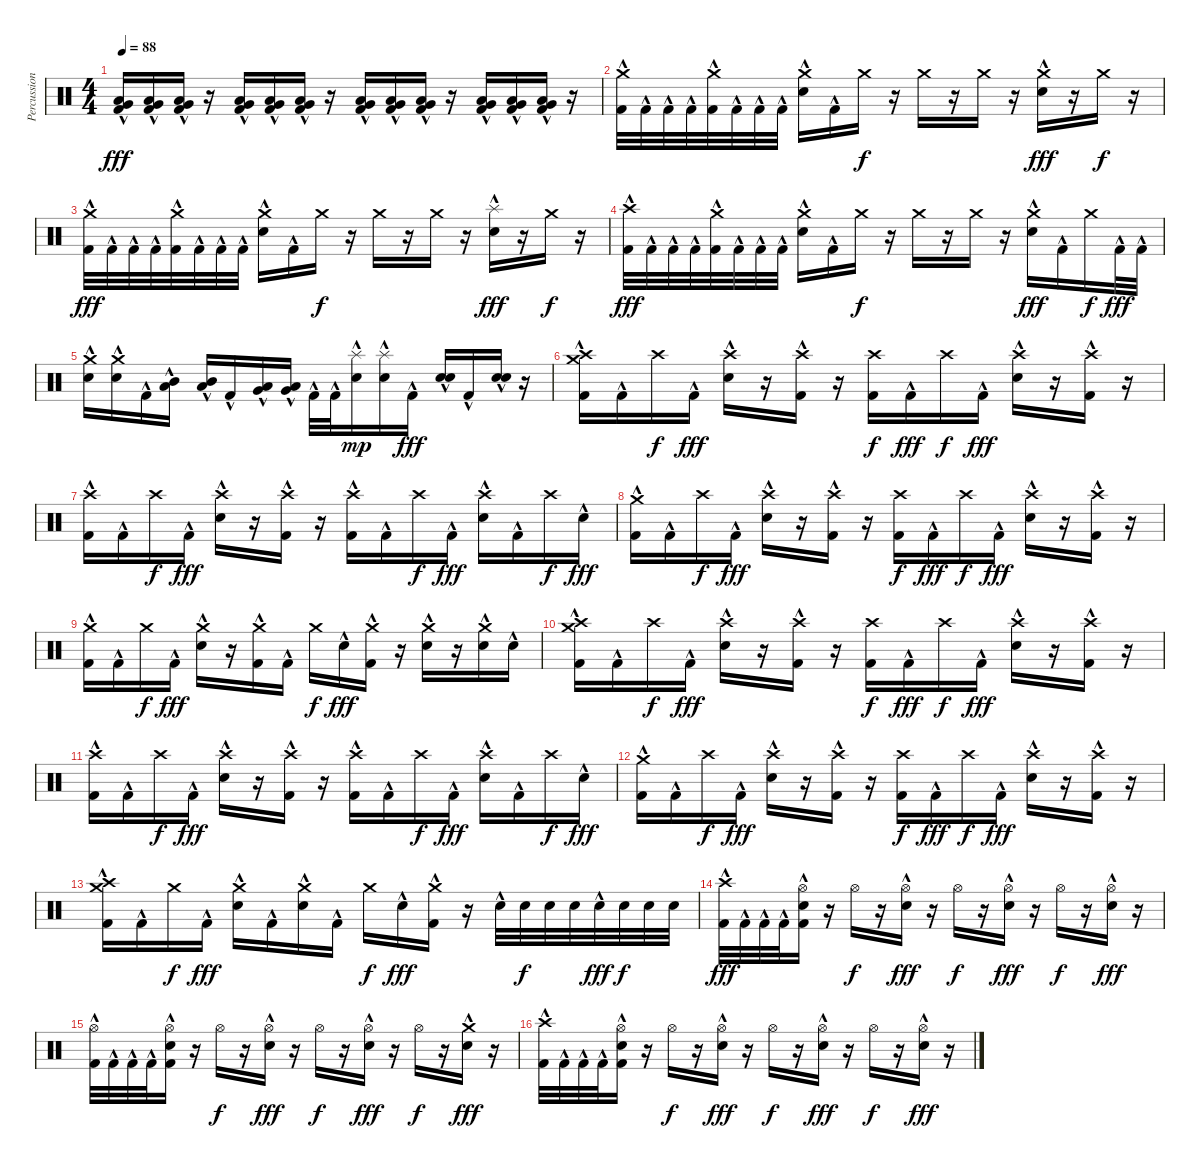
\track ("Percussion" "Percussion") {instrument percussion}
\staff {score}
\articulation defaults
\ts (4 4)
\tempo 88
\clef neutral
\ks c
("Kick (hit) 2"{hac} "Very Low Tom (hit)"{hac} "Low Tom (hit)"{hac}).16{dy fff} ("Kick (hit) 2"{hac} "Very Low Tom (hit)"{hac} "Low Tom (hit)"{hac}).16 ("Kick (hit) 2"{hac} "Very Low Tom (hit)"{hac} "Low Tom (hit)"{hac}).16 r.16 ("Kick (hit) 2"{hac} "Very Low Tom (hit)"{hac} "Low Tom (hit)"{hac}).16 ("Kick (hit) 2"{hac} "Very Low Tom (hit)"{hac} "Low Tom (hit)"{hac}).16 ("Kick (hit) 2"{hac} "Very Low Tom (hit)"{hac} "Low Tom (hit)"{hac}).16 r.16 ("Kick (hit) 2"{hac} "Very Low Tom (hit)"{hac} "Low Tom (hit)"{hac}).16 ("Kick (hit) 2"{hac} "Very Low Tom (hit)"{hac} "Low Tom (hit)"{hac}).16 ("Kick (hit) 2"{hac} "Very Low Tom (hit)"{hac} "Low Tom (hit)"{hac}).16 r.16 ("Kick (hit) 2"{hac} "Very Low Tom (hit)"{hac} "Low Tom (hit)"{hac}).16 ("Kick (hit) 2"{hac} "Very Low Tom (hit)"{hac} "Low Tom (hit)"{hac}).16 ("Kick (hit) 2"{hac} "Very Low Tom (hit)"{hac} "Low Tom (hit)"{hac}).16 r.16 |
("Kick (hit) 2"{hac} "Crash medium (hit)").32 "Kick (hit) 2"{hac}.32 "Kick (hit) 2"{hac}.32 "Kick (hit) 2"{hac}.32 ("Kick (hit) 2"{hac} "Crash medium (hit)").32 "Kick (hit) 2"{hac}.32 "Kick (hit) 2"{hac}.32 "Kick (hit) 2"{hac}.32 ("Electric Snare (hit)"{hac} "Crash medium (hit)").16 "Kick (hit) 2"{hac}.16 "Crash medium (hit)".16{dy f} r.16 "Crash medium (hit)".16 r.16 "Crash medium (hit)".16 r.16 ("Electric Snare (hit)"{hac} "Crash medium (hit)").16{dy fff} r.16 "Crash medium (hit)".16{dy f} r.16 |
("Kick (hit) 2"{hac} "Crash medium (hit)").32{dy fff} "Kick (hit) 2"{hac}.32 "Kick (hit) 2"{hac}.32 "Kick (hit) 2"{hac}.32 ("Kick (hit) 2"{hac} "Crash medium (hit)").32 "Kick (hit) 2"{hac}.32 "Kick (hit) 2"{hac}.32 "Kick (hit) 2"{hac}.32 ("Electric Snare (hit)"{hac} "Crash medium (hit)").16 "Kick (hit) 2"{hac}.16 "Crash medium (hit)".16{dy f} r.16 "Crash medium (hit)".16 r.16 "Crash medium (hit)".16 r.16 ("Electric Snare (hit)"{hac} "Splash (hit)").16{dy fff} r.16 "Crash medium (hit)".16{dy f} r.16 |
("Kick (hit) 2"{hac} "Crash high (hit)").32{dy fff} "Kick (hit) 2"{hac}.32 "Kick (hit) 2"{hac}.32 "Kick (hit) 2"{hac}.32 ("Kick (hit) 2"{hac} "Crash medium (hit)").32 "Kick (hit) 2"{hac}.32 "Kick (hit) 2"{hac}.32 "Kick (hit) 2"{hac}.32 ("Electric Snare (hit)"{hac} "Crash medium (hit)").16 "Kick (hit) 2"{hac}.16 "Crash medium (hit)".16{dy f} r.16 "Crash medium (hit)".16 r.16 "Crash medium (hit)".16 r.16 ("Electric Snare (hit)"{hac} "Crash medium (hit)").16{dy fff} "Kick (hit) 2"{hac}.16 "Crash medium (hit)".16{dy f} "Kick (hit) 2"{hac}.32{dy fff} "Kick (hit) 2"{hac}.32 |
("Electric Snare (hit)"{hac} "Crash medium (hit)").16 ("Electric Snare (hit)"{hac} "Crash medium (hit)").16 "Kick (hit) 2"{hac}.16 ("Mid Tom (hit)"{hac} "Low Tom (hit)"{hac}).16 ("Mid Tom (hit)"{hac} "Low Tom (hit)"{hac}).16 "Kick (hit) 2"{hac}.16 ("Low Tom (hit)"{hac} "Very Low Tom (hit)"{hac}).16 ("Low Tom (hit)"{hac} "Very Low Tom (hit)"{hac}).16 "Kick (hit) 2"{hac}.32 "Kick (hit) 2"{hac}.32 ("Electric Snare (hit)"{hac} "Splash (hit)").16{dy mp} ("Electric Snare (hit)"{hac} "Splash (hit)").16 "Kick (hit) 2"{hac}.16{dy fff} ("Electric Snare (hit)"{hac} "Electric Snare (hit)"{hac}).16{bd 240} "Kick (hit) 2"{hac}.16 ("Electric Snare (hit)"{hac} "Electric Snare (hit)"{hac}).16{bd 240} r.16 |
("Kick (hit) 2"{hac} "Crash medium (hit)" "Crash high (hit)").16 "Kick (hit) 2"{hac}.16 "Crash high (hit)".16{dy f} "Kick (hit) 2"{hac}.16{dy fff} ("Electric Snare (hit)"{hac} "Crash high (hit)").16 r.16 ("Kick (hit) 2"{hac} "Crash high (hit)").16 r.16 ("Kick (hit) 2" "Crash high (hit)").16{dy f} "Kick (hit) 2"{hac}.16{dy fff} "Crash high (hit)".16{dy f} "Kick (hit) 2"{hac}.16{dy fff} ("Electric Snare (hit)"{hac} "Crash high (hit)").16 r.16 ("Kick (hit) 2"{hac} "Crash high (hit)").16 r.16 |
("Kick (hit) 2"{hac} "Crash high (hit)").16 "Kick (hit) 2"{hac}.16 "Crash high (hit)".16{dy f} "Kick (hit) 2"{hac}.16{dy fff} ("Electric Snare (hit)"{hac} "Crash high (hit)").16 r.16 ("Kick (hit) 2"{hac} "Crash high (hit)").16 r.16 ("Kick (hit) 2"{hac} "Crash high (hit)").16 "Kick (hit) 2"{hac}.16 "Crash high (hit)".16{dy f} "Kick (hit) 2"{hac}.16{dy fff} ("Electric Snare (hit)"{hac} "Crash high (hit)").16 "Kick (hit) 2"{hac}.16 "Crash high (hit)".16{dy f} "Electric Snare (hit)"{hac}.16{dy fff} |
("Kick (hit) 2"{hac} "Crash medium (hit)").16 "Kick (hit) 2"{hac}.16 "Crash high (hit)".16{dy f} "Kick (hit) 2"{hac}.16{dy fff} ("Electric Snare (hit)"{hac} "Crash high (hit)").16 r.16 ("Kick (hit) 2"{hac} "Crash high (hit)").16 r.16 ("Kick (hit) 2" "Crash high (hit)").16{dy f} "Kick (hit) 2"{hac}.16{dy fff} "Crash high (hit)".16{dy f} "Kick (hit) 2"{hac}.16{dy fff} ("Electric Snare (hit)"{hac} "Crash high (hit)").16 r.16 ("Kick (hit) 2"{hac} "Crash high (hit)").16 r.16 |
("Kick (hit) 2"{hac} "Crash medium (hit)").16 "Kick (hit) 2"{hac}.16 "Crash medium (hit)".16{dy f} "Kick (hit) 2"{hac}.16{dy fff} ("Electric Snare (hit)"{hac} "Crash medium (hit)").16 r.16 ("Kick (hit) 2"{hac} "Crash medium (hit)").16 "Kick (hit) 2"{hac}.16 "Crash medium (hit)".16{dy f} "Electric Snare (hit)"{hac}.16{dy fff} ("Kick (hit) 2"{hac} "Crash medium (hit)").16 r.16 ("Electric Snare (hit)"{hac} "Crash medium (hit)").16 r.16 ("Electric Snare (hit)"{hac} "Crash medium (hit)").16 "Electric Snare (hit)"{hac}.16 |
("Kick (hit) 2"{hac} "Crash medium (hit)" "Crash high (hit)").16 "Kick (hit) 2"{hac}.16 "Crash high (hit)".16{dy f} "Kick (hit) 2"{hac}.16{dy fff} ("Electric Snare (hit)"{hac} "Crash high (hit)").16 r.16 ("Kick (hit) 2"{hac} "Crash high (hit)").16 r.16 ("Kick (hit) 2" "Crash high (hit)").16{dy f} "Kick (hit) 2"{hac}.16{dy fff} "Crash high (hit)".16{dy f} "Kick (hit) 2"{hac}.16{dy fff} ("Electric Snare (hit)"{hac} "Crash high (hit)").16 r.16 ("Kick (hit) 2"{hac} "Crash high (hit)").16 r.16 |
("Kick (hit) 2"{hac} "Crash high (hit)").16 "Kick (hit) 2"{hac}.16 "Crash high (hit)".16{dy f} "Kick (hit) 2"{hac}.16{dy fff} ("Electric Snare (hit)"{hac} "Crash high (hit)").16 r.16 ("Kick (hit) 2"{hac} "Crash high (hit)").16 r.16 ("Kick (hit) 2"{hac} "Crash high (hit)").16 "Kick (hit) 2"{hac}.16 "Crash high (hit)".16{dy f} "Kick (hit) 2"{hac}.16{dy fff} ("Electric Snare (hit)"{hac} "Crash high (hit)").16 "Kick (hit) 2"{hac}.16 "Crash high (hit)".16{dy f} "Electric Snare (hit)"{hac}.16{dy fff} |
("Kick (hit) 2"{hac} "Crash medium (hit)").16 "Kick (hit) 2"{hac}.16 "Crash high (hit)".16{dy f} "Kick (hit) 2"{hac}.16{dy fff} ("Electric Snare (hit)"{hac} "Crash high (hit)").16 r.16 ("Kick (hit) 2"{hac} "Crash high (hit)").16 r.16 ("Kick (hit) 2" "Crash high (hit)").16{dy f} "Kick (hit) 2"{hac}.16{dy fff} "Crash high (hit)".16{dy f} "Kick (hit) 2"{hac}.16{dy fff} ("Electric Snare (hit)"{hac} "Crash high (hit)").16 r.16 ("Kick (hit) 2"{hac} "Crash high (hit)").16 r.16 |
("Kick (hit) 2"{hac} "Crash high (hit)" "Crash medium (hit)").16 "Kick (hit) 2"{hac}.16 "Crash medium (hit)".16{dy f} "Kick (hit) 2"{hac}.16{dy fff} ("Electric Snare (hit)"{hac} "Crash medium (hit)").16 "Kick (hit) 2"{hac}.16 ("Electric Snare (hit)"{hac} "Crash medium (hit)").16 "Kick (hit) 2"{hac}.16 "Crash medium (hit)".16{dy f} "Electric Snare (hit)"{hac}.16{dy fff} ("Kick (hit) 2"{hac} "Crash medium (hit)").16 r.16 "Electric Snare (hit)"{hac}.32 "Electric Snare (hit)".32{dy f} "Electric Snare (hit)".32 "Electric Snare (hit)".32 "Electric Snare (hit)"{hac}.32{dy fff} "Electric Snare (hit)".32{dy f} "Electric Snare (hit)".32 "Electric Snare (hit)".32 |
("Kick (hit) 2"{hac} "Crash high (hit)").32{dy fff} "Kick (hit) 2"{hac}.32 "Kick (hit) 2"{hac}.32 "Kick (hit) 2"{hac}.32 ("Kick (hit) 2"{hac} "Electric Snare (hit)" "Hi-Hat (open)").16 r.16 "Hi-Hat (open)".16{dy f} r.16 ("Electric Snare (hit)"{hac} "Hi-Hat (open)").16{dy fff} r.16 "Hi-Hat (open)".16{dy f} r.16 ("Electric Snare (hit)"{hac} "Hi-Hat (open)").16{dy fff} r.16 "Hi-Hat (open)".16{dy f} r.16 ("Electric Snare (hit)"{hac} "Hi-Hat (open)").16{dy fff} r.16 |
("Kick (hit) 2"{hac} "Hi-Hat (open)").32 "Kick (hit) 2"{hac}.32 "Kick (hit) 2"{hac}.32 "Kick (hit) 2"{hac}.32 ("Kick (hit) 2"{hac} "Electric Snare (hit)" "Hi-Hat (open)").16 r.16 "Hi-Hat (open)".16{dy f} r.16 ("Electric Snare (hit)"{hac} "Hi-Hat (open)").16{dy fff} r.16 "Hi-Hat (open)".16{dy f} r.16 ("Electric Snare (hit)"{hac} "Hi-Hat (open)").16{dy fff} r.16 "Hi-Hat (open)".16{dy f} r.16 ("Electric Snare (hit)"{hac} "Crash medium (hit)").16{dy fff} r.16 |
("Kick (hit) 2"{hac} "Crash high (hit)").32 "Kick (hit) 2"{hac}.32 "Kick (hit) 2"{hac}.32 "Kick (hit) 2"{hac}.32 ("Kick (hit) 2"{hac} "Electric Snare (hit)" "Hi-Hat (open)").16 r.16 "Hi-Hat (open)".16{dy f} r.16 ("Electric Snare (hit)"{hac} "Hi-Hat (open)").16{dy fff} r.16 "Hi-Hat (open)".16{dy f} r.16 ("Electric Snare (hit)"{hac} "Hi-Hat (open)").16{dy fff} r.16 "Hi-Hat (open)".16{dy f} r.16 ("Electric Snare (hit)"{hac} "Hi-Hat (open)").16{dy fff} r.16
